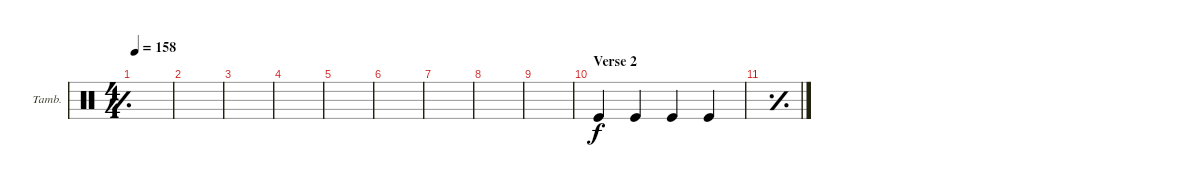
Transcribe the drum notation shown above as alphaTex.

\defaultSystemsLayout 4
\bracketExtendMode groupsimilarinstruments
\firstSystemTrackNameOrientation horizontal
\otherSystemsTrackNameOrientation horizontal
\track ("Tambourine" "Tamb.") {instrument percussion}
\staff {score}
\articulation defaults
\ts (4 4)
\tempo 158
\clef neutral
\simile simple
\ks c
|
|
|
|
|
|
|
|
|
\section ("" "Verse 2")
\simile none "Kick (hit)".4 "Kick (hit)".4 "Kick (hit)".4 "Kick (hit)".4
|
\simile simple
